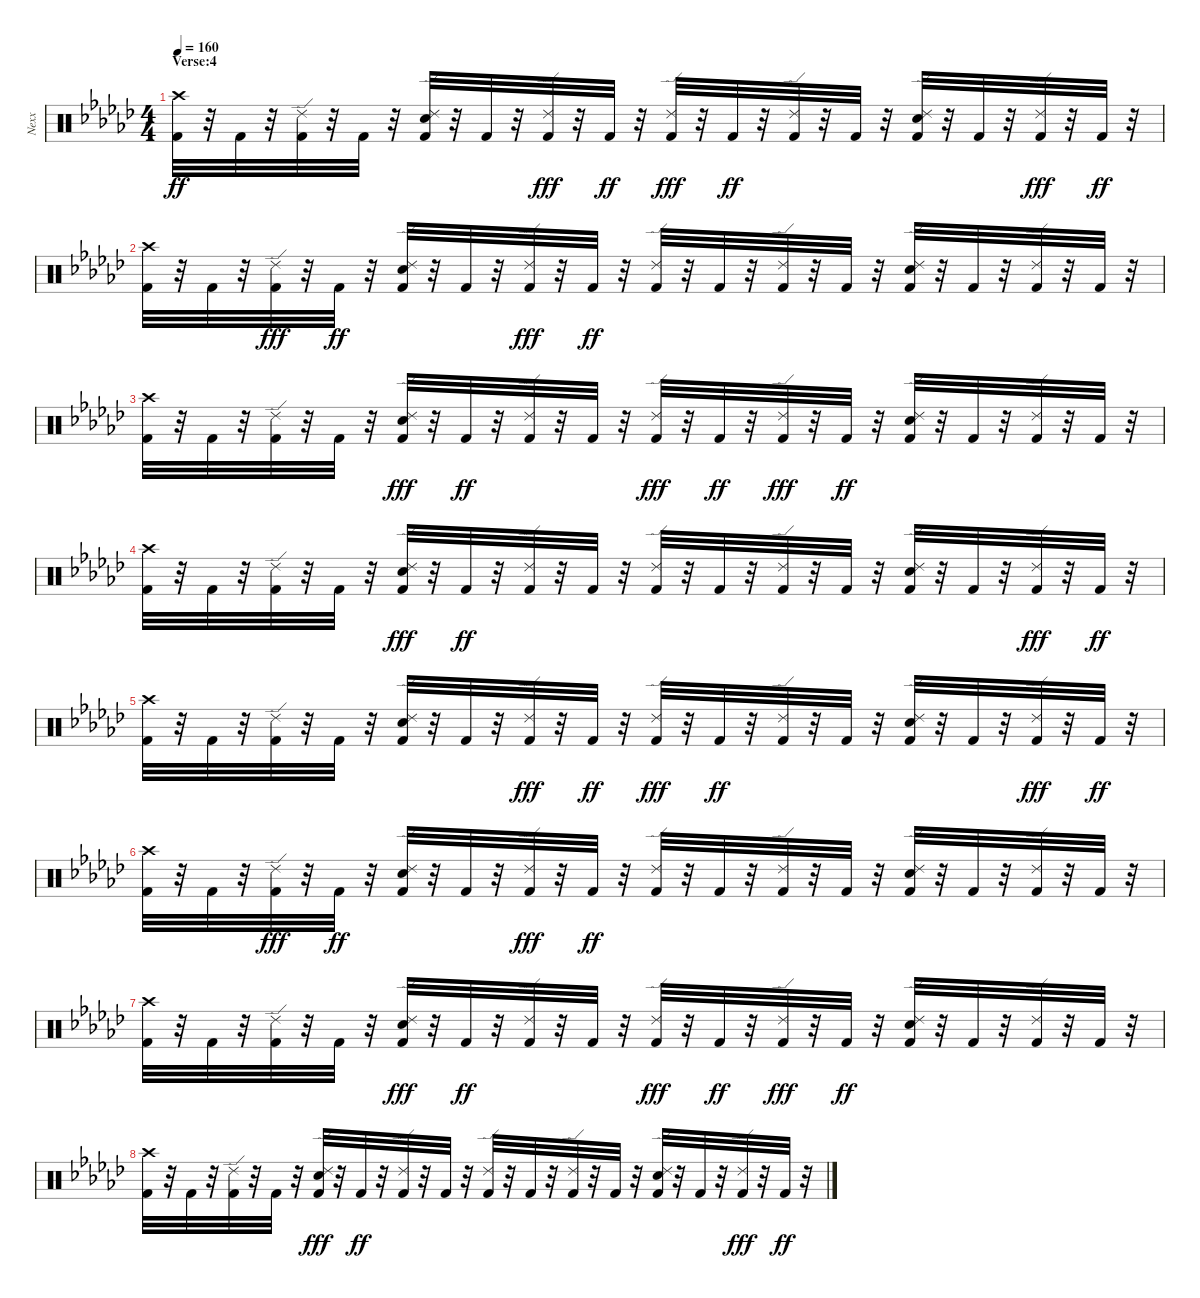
\track ("Nexx" "Nexx") {instrument percussion}
\staff {score}
\articulation defaults
\ts (4 4)
\section ("" "Verse:4")
\tempo 160
\clef neutral
\ks ebminor
("Crash high (hit)" "Kick (hit) 2").32{dy ff volume 13} r.32 "Kick (hit) 2".32 r.32 ("Ride (edge) 2" "Kick (hit) 2").32 r.32 "Kick (hit) 2".32 r.32 ("Kick (hit) 2" "Ride (edge) 2" "Electric Snare (hit)").32 r.32 "Kick (hit) 2".32 r.32 ("Kick (hit) 2" "Ride (edge) 2").32{dy fff} r.32 "Kick (hit) 2".32{dy ff} r.32 ("Kick (hit) 2" "Ride (edge) 2").32{dy fff} r.32 "Kick (hit) 2".32{dy ff} r.32 ("Ride (edge) 2" "Kick (hit) 2").32 r.32 "Kick (hit) 2".32 r.32 ("Electric Snare (hit)" "Ride (edge) 2" "Kick (hit) 2").32 r.32 "Kick (hit) 2".32 r.32 ("Kick (hit) 2" "Ride (edge) 2").32{dy fff} r.32 "Kick (hit) 2".32{dy ff} r.32 |
("Kick (hit) 2" "Crash high (hit)").32 r.32 "Kick (hit) 2".32 r.32 ("Kick (hit) 2" "Ride (edge) 2").32{dy fff} r.32 "Kick (hit) 2".32{dy ff} r.32 ("Electric Snare (hit)" "Ride (edge) 2" "Kick (hit) 2").32 r.32 "Kick (hit) 2".32 r.32 ("Kick (hit) 2" "Ride (edge) 2").32{dy fff} r.32 "Kick (hit) 2".32{dy ff} r.32 ("Ride (edge) 2" "Kick (hit) 2").32 r.32 "Kick (hit) 2".32 r.32 ("Ride (edge) 2" "Kick (hit) 2").32 r.32 "Kick (hit) 2".32 r.32 ("Kick (hit) 2" "Ride (edge) 2" "Electric Snare (hit)").32 r.32 "Kick (hit) 2".32 r.32 ("Ride (edge) 2" "Kick (hit) 2").32 r.32 "Kick (hit) 2".32 r.32 |
("Crash high (hit)" "Kick (hit) 2").32 r.32 "Kick (hit) 2".32 r.32 ("Ride (edge) 2" "Kick (hit) 2").32 r.32 "Kick (hit) 2".32 r.32 ("Kick (hit) 2" "Electric Snare (hit)" "Ride (edge) 2").32{dy fff} r.32 "Kick (hit) 2".32{dy ff} r.32 ("Ride (edge) 2" "Kick (hit) 2").32 r.32 "Kick (hit) 2".32 r.32 ("Kick (hit) 2" "Ride (edge) 2").32{dy fff} r.32 "Kick (hit) 2".32{dy ff} r.32 ("Kick (hit) 2" "Ride (edge) 2").32{dy fff} r.32 "Kick (hit) 2".32{dy ff} r.32 ("Ride (edge) 2" "Electric Snare (hit)" "Kick (hit) 2").32 r.32 "Kick (hit) 2".32 r.32 ("Ride (edge) 2" "Kick (hit) 2").32 r.32 "Kick (hit) 2".32 r.32 |
("Kick (hit) 2" "Crash high (hit)").32 r.32 "Kick (hit) 2".32 r.32 ("Ride (edge) 2" "Kick (hit) 2").32 r.32 "Kick (hit) 2".32 r.32 ("Electric Snare (hit)" "Kick (hit) 2" "Ride (edge) 2").32{dy fff} r.32 "Kick (hit) 2".32{dy ff} r.32 ("Ride (edge) 2" "Kick (hit) 2").32 r.32 "Kick (hit) 2".32 r.32 ("Ride (edge) 2" "Kick (hit) 2").32 r.32 "Kick (hit) 2".32 r.32 ("Ride (edge) 2" "Kick (hit) 2").32 r.32 "Kick (hit) 2".32 r.32 ("Kick (hit) 2" "Ride (edge) 2" "Electric Snare (hit)").32 r.32 "Kick (hit) 2".32 r.32 ("Kick (hit) 2" "Ride (edge) 2").32{dy fff} r.32 "Kick (hit) 2".32{dy ff} r.32 |
("Crash high (hit)" "Kick (hit) 2").32 r.32 "Kick (hit) 2".32 r.32 ("Ride (edge) 2" "Kick (hit) 2").32 r.32 "Kick (hit) 2".32 r.32 ("Kick (hit) 2" "Ride (edge) 2" "Electric Snare (hit)").32 r.32 "Kick (hit) 2".32 r.32 ("Kick (hit) 2" "Ride (edge) 2").32{dy fff} r.32 "Kick (hit) 2".32{dy ff} r.32 ("Kick (hit) 2" "Ride (edge) 2").32{dy fff} r.32 "Kick (hit) 2".32{dy ff} r.32 ("Ride (edge) 2" "Kick (hit) 2").32 r.32 "Kick (hit) 2".32 r.32 ("Electric Snare (hit)" "Ride (edge) 2" "Kick (hit) 2").32 r.32 "Kick (hit) 2".32 r.32 ("Kick (hit) 2" "Ride (edge) 2").32{dy fff} r.32 "Kick (hit) 2".32{dy ff} r.32 |
("Kick (hit) 2" "Crash high (hit)").32 r.32 "Kick (hit) 2".32 r.32 ("Kick (hit) 2" "Ride (edge) 2").32{dy fff} r.32 "Kick (hit) 2".32{dy ff} r.32 ("Electric Snare (hit)" "Ride (edge) 2" "Kick (hit) 2").32 r.32 "Kick (hit) 2".32 r.32 ("Kick (hit) 2" "Ride (edge) 2").32{dy fff} r.32 "Kick (hit) 2".32{dy ff} r.32 ("Ride (edge) 2" "Kick (hit) 2").32 r.32 "Kick (hit) 2".32 r.32 ("Ride (edge) 2" "Kick (hit) 2").32 r.32 "Kick (hit) 2".32 r.32 ("Kick (hit) 2" "Ride (edge) 2" "Electric Snare (hit)").32 r.32 "Kick (hit) 2".32 r.32 ("Ride (edge) 2" "Kick (hit) 2").32 r.32 "Kick (hit) 2".32 r.32 |
("Crash high (hit)" "Kick (hit) 2").32 r.32 "Kick (hit) 2".32 r.32 ("Ride (edge) 2" "Kick (hit) 2").32 r.32 "Kick (hit) 2".32 r.32 ("Kick (hit) 2" "Electric Snare (hit)" "Ride (edge) 2").32{dy fff} r.32 "Kick (hit) 2".32{dy ff} r.32 ("Ride (edge) 2" "Kick (hit) 2").32 r.32 "Kick (hit) 2".32 r.32 ("Kick (hit) 2" "Ride (edge) 2").32{dy fff} r.32 "Kick (hit) 2".32{dy ff} r.32 ("Kick (hit) 2" "Ride (edge) 2").32{dy fff} r.32 "Kick (hit) 2".32{dy ff} r.32 ("Ride (edge) 2" "Electric Snare (hit)" "Kick (hit) 2").32 r.32 "Kick (hit) 2".32 r.32 ("Ride (edge) 2" "Kick (hit) 2").32 r.32 "Kick (hit) 2".32 r.32 |
("Kick (hit) 2" "Crash high (hit)").32 r.32 "Kick (hit) 2".32 r.32 ("Ride (edge) 2" "Kick (hit) 2").32 r.32 "Kick (hit) 2".32 r.32 ("Electric Snare (hit)" "Kick (hit) 2" "Ride (edge) 2").32{dy fff} r.32 "Kick (hit) 2".32{dy ff} r.32 ("Ride (edge) 2" "Kick (hit) 2").32 r.32 "Kick (hit) 2".32 r.32 ("Ride (edge) 2" "Kick (hit) 2").32 r.32 "Kick (hit) 2".32 r.32 ("Ride (edge) 2" "Kick (hit) 2").32 r.32 "Kick (hit) 2".32 r.32 ("Kick (hit) 2" "Ride (edge) 2" "Electric Snare (hit)").32 r.32 "Kick (hit) 2".32 r.32 ("Kick (hit) 2" "Ride (edge) 2").32{dy fff} r.32 "Kick (hit) 2".32{dy ff} r.32
